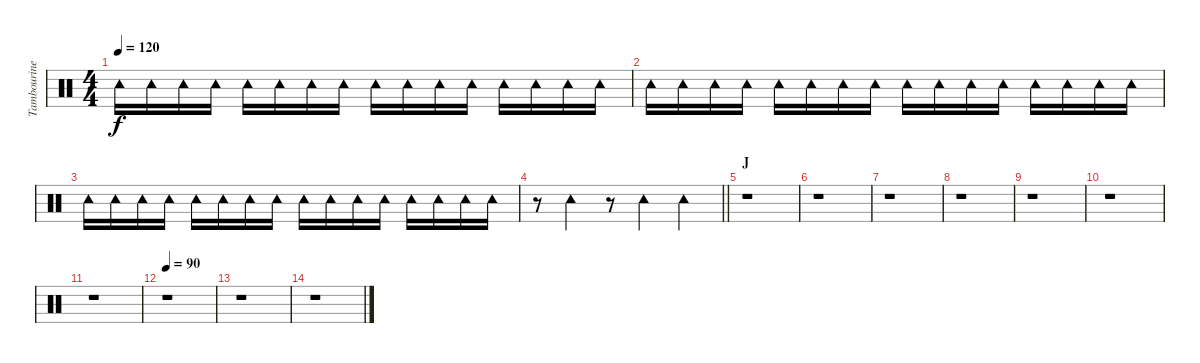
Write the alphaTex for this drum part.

\track ("Tambourine" "Tambourine") {instrument percussion}
\staff {score}
\articulation defaults
\ts (4 4)
\tempo 120
\clef neutral
\ks c "Tambourine (hit)".16{dy f} "Tambourine (hit)".16 "Tambourine (hit)".16 "Tambourine (hit)".16 "Tambourine (hit)".16 "Tambourine (hit)".16 "Tambourine (hit)".16 "Tambourine (hit)".16 "Tambourine (hit)".16 "Tambourine (hit)".16 "Tambourine (hit)".16 "Tambourine (hit)".16 "Tambourine (hit)".16 "Tambourine (hit)".16 "Tambourine (hit)".16 "Tambourine (hit)".16
|
"Tambourine (hit)".16 "Tambourine (hit)".16 "Tambourine (hit)".16 "Tambourine (hit)".16 "Tambourine (hit)".16 "Tambourine (hit)".16 "Tambourine (hit)".16 "Tambourine (hit)".16 "Tambourine (hit)".16 "Tambourine (hit)".16 "Tambourine (hit)".16 "Tambourine (hit)".16 "Tambourine (hit)".16 "Tambourine (hit)".16 "Tambourine (hit)".16 "Tambourine (hit)".16 |
"Tambourine (hit)".16 "Tambourine (hit)".16 "Tambourine (hit)".16 "Tambourine (hit)".16 "Tambourine (hit)".16 "Tambourine (hit)".16 "Tambourine (hit)".16 "Tambourine (hit)".16 "Tambourine (hit)".16 "Tambourine (hit)".16 "Tambourine (hit)".16 "Tambourine (hit)".16 "Tambourine (hit)".16 "Tambourine (hit)".16 "Tambourine (hit)".16 "Tambourine (hit)".16 |
\barLineRight lightlight
r.8 "Tambourine (hit)".4 r.8 "Tambourine (hit)".4 "Tambourine (hit)".4 |
\section ("" "J")
r.1 |
r.1 |
r.1 |
r.1 |
r.1 |
r.1 |
r.1 |
\tempo 90
r.1 |
r.1 |
r.1
